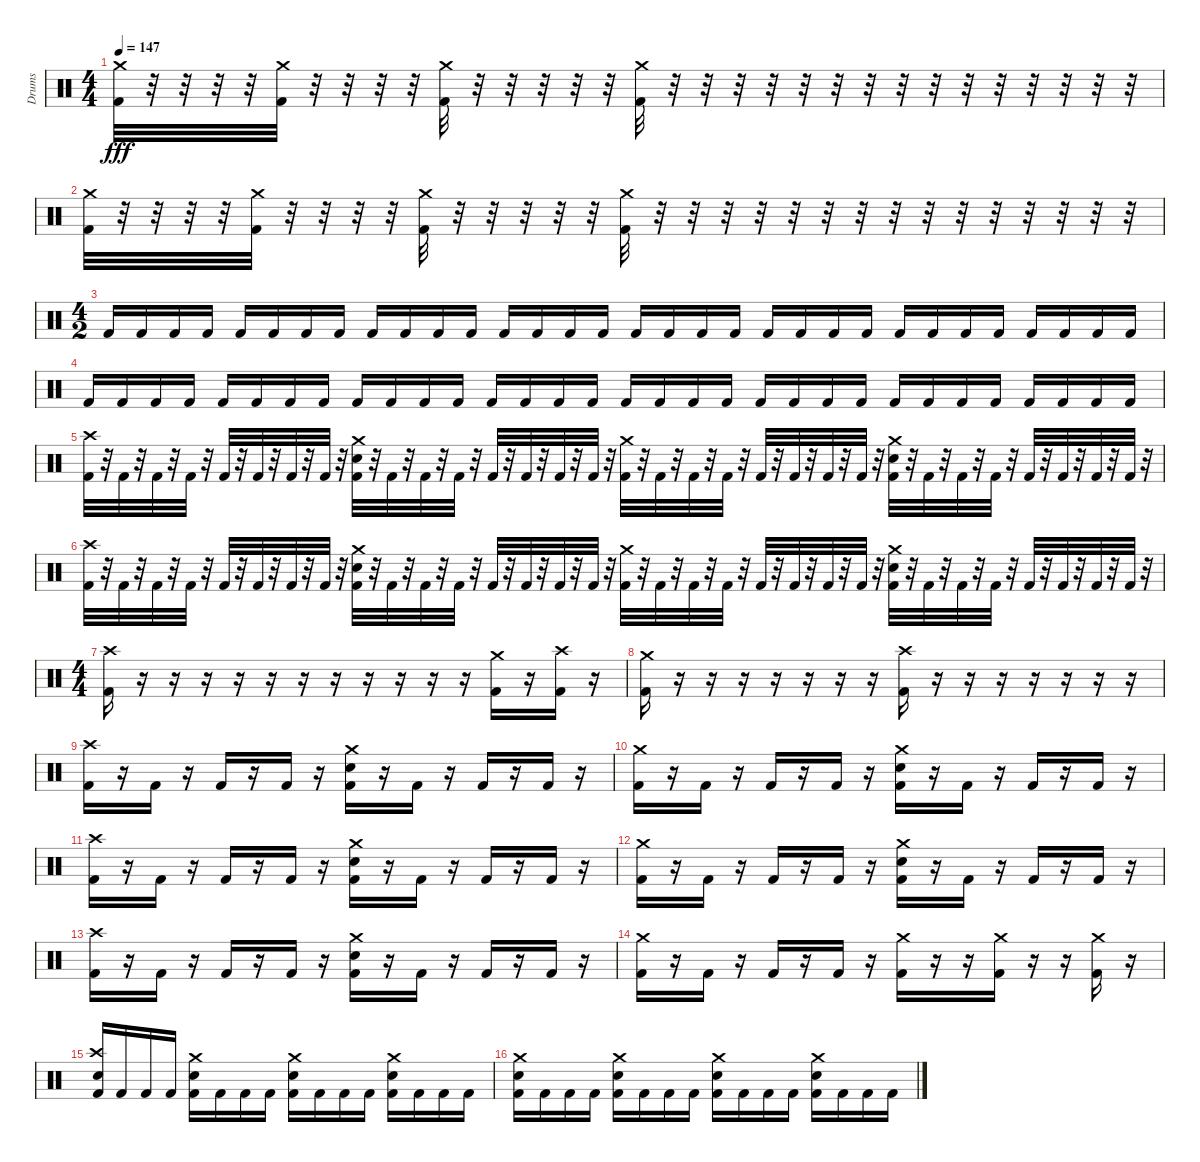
\track ("Drums" "Drums") {instrument percussion}
\staff {score}
\articulation defaults
\ts (4 4)
\tempo 147
\clef neutral
\ks c
("Crash medium (hit)" "Kick (hit) 2").32{dy fff} r.32 r.32 r.32 r.32 ("Crash medium (hit)" "Kick (hit) 2").32 r.32 r.32 r.32 r.32 ("Crash medium (hit)" "Kick (hit) 2").32 r.32 r.32 r.32 r.32 r.32 ("Crash medium (hit)" "Kick (hit) 2").32 r.32 r.32 r.32 r.32 r.32 r.32 r.32 r.32 r.32 r.32 r.32 r.32 r.32 r.32 r.32 |
("Crash medium (hit)" "Kick (hit) 2").32 r.32 r.32 r.32 r.32 ("Crash medium (hit)" "Kick (hit) 2").32 r.32 r.32 r.32 r.32 ("Crash medium (hit)" "Kick (hit) 2").32 r.32 r.32 r.32 r.32 r.32 ("Crash medium (hit)" "Kick (hit) 2").32 r.32 r.32 r.32 r.32 r.32 r.32 r.32 r.32 r.32 r.32 r.32 r.32 r.32 r.32 r.32 |
\ts (4 2)
"Kick (hit) 2".16 "Kick (hit) 2".16 "Kick (hit) 2".16 "Kick (hit) 2".16 "Kick (hit) 2".16 "Kick (hit) 2".16 "Kick (hit) 2".16 "Kick (hit) 2".16 "Kick (hit) 2".16 "Kick (hit) 2".16 "Kick (hit) 2".16 "Kick (hit) 2".16 "Kick (hit) 2".16 "Kick (hit) 2".16 "Kick (hit) 2".16 "Kick (hit) 2".16 "Kick (hit) 2".16 "Kick (hit) 2".16 "Kick (hit) 2".16 "Kick (hit) 2".16 "Kick (hit) 2".16 "Kick (hit) 2".16 "Kick (hit) 2".16 "Kick (hit) 2".16 "Kick (hit) 2".16 "Kick (hit) 2".16 "Kick (hit) 2".16 "Kick (hit) 2".16 "Kick (hit) 2".16 "Kick (hit) 2".16 "Kick (hit) 2".16 "Kick (hit) 2".16 |
"Kick (hit) 2".16 "Kick (hit) 2".16 "Kick (hit) 2".16 "Kick (hit) 2".16 "Kick (hit) 2".16 "Kick (hit) 2".16 "Kick (hit) 2".16 "Kick (hit) 2".16 "Kick (hit) 2".16 "Kick (hit) 2".16 "Kick (hit) 2".16 "Kick (hit) 2".16 "Kick (hit) 2".16 "Kick (hit) 2".16 "Kick (hit) 2".16 "Kick (hit) 2".16 "Kick (hit) 2".16 "Kick (hit) 2".16 "Kick (hit) 2".16 "Kick (hit) 2".16 "Kick (hit) 2".16 "Kick (hit) 2".16 "Kick (hit) 2".16 "Kick (hit) 2".16 "Kick (hit) 2".16 "Kick (hit) 2".16 "Kick (hit) 2".16 "Kick (hit) 2".16 "Kick (hit) 2".16 "Kick (hit) 2".16 "Kick (hit) 2".16 "Kick (hit) 2".16 |
("Crash high (hit)" "Kick (hit) 2").32 r.32 "Kick (hit) 2".32 r.32 "Kick (hit) 2".32 r.32 "Kick (hit) 2".32 r.32 "Kick (hit) 2".32 r.32 "Kick (hit) 2".32 r.32 "Kick (hit) 2".32 r.32 "Kick (hit) 2".32 r.32 ("Crash medium (hit)" "Electric Snare (hit)" "Kick (hit) 2").32 r.32 "Kick (hit) 2".32 r.32 "Kick (hit) 2".32 r.32 "Kick (hit) 2".32 r.32 "Kick (hit) 2".32 r.32 "Kick (hit) 2".32 r.32 "Kick (hit) 2".32 r.32 "Kick (hit) 2".32 r.32 ("Crash medium (hit)" "Kick (hit) 2").32 r.32 "Kick (hit) 2".32 r.32 "Kick (hit) 2".32 r.32 "Kick (hit) 2".32 r.32 "Kick (hit) 2".32 r.32 "Kick (hit) 2".32 r.32 "Kick (hit) 2".32 r.32 "Kick (hit) 2".32 r.32 ("Crash medium (hit)" "Electric Snare (hit)" "Kick (hit) 2").32 r.32 "Kick (hit) 2".32 r.32 "Kick (hit) 2".32 r.32 "Kick (hit) 2".32 r.32 "Kick (hit) 2".32 r.32 "Kick (hit) 2".32 r.32 "Kick (hit) 2".32 r.32 "Kick (hit) 2".32 r.32 |
("Crash high (hit)" "Kick (hit) 2").32 r.32 "Kick (hit) 2".32 r.32 "Kick (hit) 2".32 r.32 "Kick (hit) 2".32 r.32 "Kick (hit) 2".32 r.32 "Kick (hit) 2".32 r.32 "Kick (hit) 2".32 r.32 "Kick (hit) 2".32 r.32 ("Crash medium (hit)" "Electric Snare (hit)" "Kick (hit) 2").32 r.32 "Kick (hit) 2".32 r.32 "Kick (hit) 2".32 r.32 "Kick (hit) 2".32 r.32 "Kick (hit) 2".32 r.32 "Kick (hit) 2".32 r.32 "Kick (hit) 2".32 r.32 "Kick (hit) 2".32 r.32 ("Crash medium (hit)" "Kick (hit) 2").32 r.32 "Kick (hit) 2".32 r.32 "Kick (hit) 2".32 r.32 "Kick (hit) 2".32 r.32 "Kick (hit) 2".32 r.32 "Kick (hit) 2".32 r.32 "Kick (hit) 2".32 r.32 "Kick (hit) 2".32 r.32 ("Crash medium (hit)" "Electric Snare (hit)" "Kick (hit) 2").32 r.32 "Kick (hit) 2".32 r.32 "Kick (hit) 2".32 r.32 "Kick (hit) 2".32 r.32 "Kick (hit) 2".32 r.32 "Kick (hit) 2".32 r.32 "Kick (hit) 2".32 r.32 "Kick (hit) 2".32 r.32 |
\ts (4 4)
("Crash high (hit)" "Kick (hit) 2").16 r.16 r.16 r.16 r.16 r.16 r.16 r.16 r.16 r.16 r.16 r.16 ("Crash medium (hit)" "Kick (hit) 2").16 r.16 ("Crash high (hit)" "Kick (hit) 2").16 r.16 |
("Crash medium (hit)" "Kick (hit) 2").16 r.16 r.16 r.16 r.16 r.16 r.16 r.16 ("Crash high (hit)" "Kick (hit) 2").16 r.16 r.16 r.16 r.16 r.16 r.16 r.16 |
("Crash high (hit)" "Kick (hit) 2").16 r.16 "Kick (hit) 2".16 r.16 "Kick (hit) 2".16 r.16 "Kick (hit) 2".16 r.16 ("Crash medium (hit)" "Electric Snare (hit)" "Kick (hit) 2").16 r.16 "Kick (hit) 2".16 r.16 "Kick (hit) 2".16 r.16 "Kick (hit) 2".16 r.16 |
("Crash medium (hit)" "Kick (hit) 2").16 r.16 "Kick (hit) 2".16 r.16 "Kick (hit) 2".16 r.16 "Kick (hit) 2".16 r.16 ("Crash medium (hit)" "Electric Snare (hit)" "Kick (hit) 2").16 r.16 "Kick (hit) 2".16 r.16 "Kick (hit) 2".16 r.16 "Kick (hit) 2".16 r.16 |
("Crash high (hit)" "Kick (hit) 2").16 r.16 "Kick (hit) 2".16 r.16 "Kick (hit) 2".16 r.16 "Kick (hit) 2".16 r.16 ("Crash medium (hit)" "Electric Snare (hit)" "Kick (hit) 2").16 r.16 "Kick (hit) 2".16 r.16 "Kick (hit) 2".16 r.16 "Kick (hit) 2".16 r.16 |
("Crash medium (hit)" "Kick (hit) 2").16 r.16 "Kick (hit) 2".16 r.16 "Kick (hit) 2".16 r.16 "Kick (hit) 2".16 r.16 ("Crash medium (hit)" "Electric Snare (hit)" "Kick (hit) 2").16 r.16 "Kick (hit) 2".16 r.16 "Kick (hit) 2".16 r.16 "Kick (hit) 2".16 r.16 |
("Crash high (hit)" "Kick (hit) 2").16 r.16 "Kick (hit) 2".16 r.16 "Kick (hit) 2".16 r.16 "Kick (hit) 2".16 r.16 ("Crash medium (hit)" "Electric Snare (hit)" "Kick (hit) 2").16 r.16 "Kick (hit) 2".16 r.16 "Kick (hit) 2".16 r.16 "Kick (hit) 2".16 r.16 |
("Crash medium (hit)" "Kick (hit) 2").16 r.16 "Kick (hit) 2".16 r.16 "Kick (hit) 2".16 r.16 "Kick (hit) 2".16 r.16 ("Crash medium (hit)" "Kick (hit) 2").16 r.16 r.16 ("Crash medium (hit)" "Kick (hit) 2").16 r.16 r.16 ("Crash medium (hit)" "Kick (hit) 2").16 r.16 |
("Crash high (hit)" "Electric Snare (hit)" "Kick (hit) 2").16 "Kick (hit) 2".16 "Kick (hit) 2".16 "Kick (hit) 2".16 ("Crash medium (hit)" "Electric Snare (hit)" "Kick (hit) 2").16 "Kick (hit) 2".16 "Kick (hit) 2".16 "Kick (hit) 2".16 ("Crash medium (hit)" "Electric Snare (hit)" "Kick (hit) 2").16 "Kick (hit) 2".16 "Kick (hit) 2".16 "Kick (hit) 2".16 ("Crash medium (hit)" "Electric Snare (hit)" "Kick (hit) 2").16 "Kick (hit) 2".16 "Kick (hit) 2".16 "Kick (hit) 2".16 |
("Crash medium (hit)" "Electric Snare (hit)" "Kick (hit) 2").16 "Kick (hit) 2".16 "Kick (hit) 2".16 "Kick (hit) 2".16 ("Crash medium (hit)" "Electric Snare (hit)" "Kick (hit) 2").16 "Kick (hit) 2".16 "Kick (hit) 2".16 "Kick (hit) 2".16 ("Crash medium (hit)" "Electric Snare (hit)" "Kick (hit) 2").16 "Kick (hit) 2".16 "Kick (hit) 2".16 "Kick (hit) 2".16 ("Crash medium (hit)" "Electric Snare (hit)" "Kick (hit) 2").16 "Kick (hit) 2".16 "Kick (hit) 2".16 "Kick (hit) 2".16
